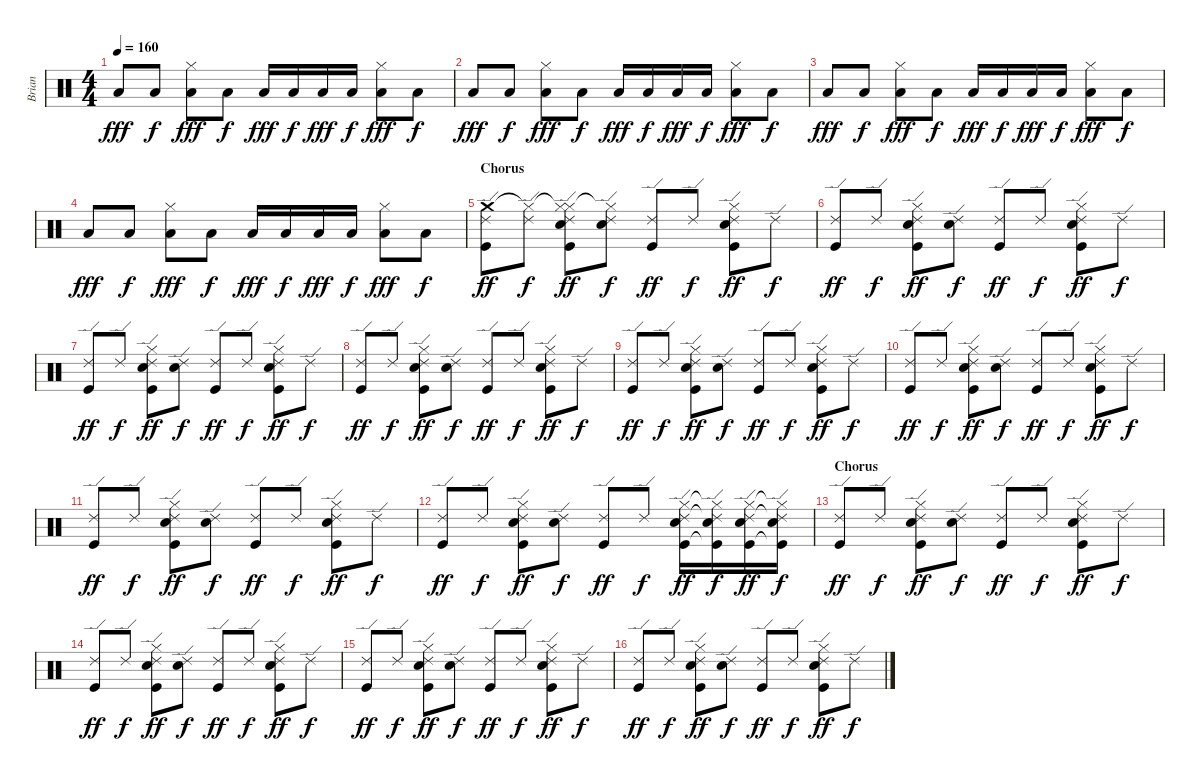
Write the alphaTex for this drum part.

\track ("Brian" "Brian") {instrument percussion}
\staff {score}
\articulation defaults
\ts (4 4)
\tempo 160
\clef neutral
\ks c "Low Tom (hit)".8{dy fff} "Low Tom (hit)".8{dy f}
("Hi-Hat (closed)" "Low Tom (hit)").8{dy fff} "Low Tom (hit)".8{dy f} "Low Tom (hit)".16{dy fff} "Low Tom (hit)".16{dy f} "Low Tom (hit)".16{dy fff} "Low Tom (hit)".16{dy f} ("Hi-Hat (closed)" "Low Tom (hit)").8{dy fff} "Low Tom (hit)".8{dy f} |
"Low Tom (hit)".8{dy fff} "Low Tom (hit)".8{dy f} ("Hi-Hat (closed)" "Low Tom (hit)").8{dy fff} "Low Tom (hit)".8{dy f} "Low Tom (hit)".16{dy fff} "Low Tom (hit)".16{dy f} "Low Tom (hit)".16{dy fff} "Low Tom (hit)".16{dy f} ("Hi-Hat (closed)" "Low Tom (hit)").8{dy fff} "Low Tom (hit)".8{dy f} |
"Low Tom (hit)".8{dy fff} "Low Tom (hit)".8{dy f} ("Hi-Hat (closed)" "Low Tom (hit)").8{dy fff} "Low Tom (hit)".8{dy f} "Low Tom (hit)".16{dy fff} "Low Tom (hit)".16{dy f} "Low Tom (hit)".16{dy fff} "Low Tom (hit)".16{dy f} ("Hi-Hat (closed)" "Low Tom (hit)").8{dy fff} "Low Tom (hit)".8{dy f} |
"Low Tom (hit)".8{dy fff} "Low Tom (hit)".8{dy f} ("Hi-Hat (closed)" "Low Tom (hit)").8{dy fff} "Low Tom (hit)".8{dy f} "Low Tom (hit)".16{dy fff} "Low Tom (hit)".16{dy f} "Low Tom (hit)".16{dy fff} "Low Tom (hit)".16{dy f} ("Hi-Hat (closed)" "Low Tom (hit)").8{dy fff} "Low Tom (hit)".8{dy f} |
\section ("" "Chorus")
("Ride (edge) 2" "Crash medium (hit)" "Kick (hit)").8{dy ff} ("Ride (edge) 2" "Hi-Hat (closed)"{t}).8{dy f} ("Ride (edge) 2" "Hi-Hat (closed)"{t} "Hi-Hat (closed)" "Snare (hit) 2" "Kick (hit)").8{dy ff} ("Ride (edge) 2" "Hi-Hat (closed)"{t} "Snare (hit) 2").8{dy f} ("Ride (edge) 2" "Kick (hit)").8{dy ff} "Ride (edge) 2".8{dy f} ("Ride (edge) 2" "Hi-Hat (closed)" "Snare (hit) 2" "Kick (hit)").8{dy ff} "Ride (edge) 2".8{dy f} |
("Ride (edge) 2" "Kick (hit)").8{dy ff} "Ride (edge) 2".8{dy f} ("Ride (edge) 2" "Hi-Hat (closed)" "Snare (hit) 2" "Kick (hit)").8{dy ff} ("Ride (edge) 2" "Snare (hit) 2").8{dy f} ("Ride (edge) 2" "Kick (hit)").8{dy ff} "Ride (edge) 2".8{dy f} ("Ride (edge) 2" "Hi-Hat (closed)" "Snare (hit) 2" "Kick (hit)").8{dy ff} "Ride (edge) 2".8{dy f} |
("Ride (edge) 2" "Kick (hit)").8{dy ff} "Ride (edge) 2".8{dy f} ("Ride (edge) 2" "Hi-Hat (closed)" "Snare (hit) 2" "Kick (hit)").8{dy ff} ("Ride (edge) 2" "Snare (hit) 2").8{dy f} ("Ride (edge) 2" "Kick (hit)").8{dy ff} "Ride (edge) 2".8{dy f} ("Ride (edge) 2" "Hi-Hat (closed)" "Snare (hit) 2" "Kick (hit)").8{dy ff} "Ride (edge) 2".8{dy f} |
("Ride (edge) 2" "Kick (hit)").8{dy ff} "Ride (edge) 2".8{dy f} ("Ride (edge) 2" "Hi-Hat (closed)" "Snare (hit) 2" "Kick (hit)").8{dy ff} ("Ride (edge) 2" "Snare (hit) 2").8{dy f} ("Ride (edge) 2" "Kick (hit)").8{dy ff} "Ride (edge) 2".8{dy f} ("Ride (edge) 2" "Hi-Hat (closed)" "Snare (hit) 2" "Kick (hit)").8{dy ff} "Ride (edge) 2".8{dy f} |
("Ride (edge) 2" "Kick (hit)").8{dy ff} "Ride (edge) 2".8{dy f} ("Ride (edge) 2" "Hi-Hat (closed)" "Snare (hit) 2" "Kick (hit)").8{dy ff} ("Ride (edge) 2" "Snare (hit) 2").8{dy f} ("Ride (edge) 2" "Kick (hit)").8{dy ff} "Ride (edge) 2".8{dy f} ("Ride (edge) 2" "Hi-Hat (closed)" "Snare (hit) 2" "Kick (hit)").8{dy ff} "Ride (edge) 2".8{dy f} |
("Ride (edge) 2" "Kick (hit)").8{dy ff} "Ride (edge) 2".8{dy f} ("Ride (edge) 2" "Hi-Hat (closed)" "Snare (hit) 2" "Kick (hit)").8{dy ff} ("Ride (edge) 2" "Snare (hit) 2").8{dy f} ("Ride (edge) 2" "Kick (hit)").8{dy ff} "Ride (edge) 2".8{dy f} ("Ride (edge) 2" "Hi-Hat (closed)" "Snare (hit) 2" "Kick (hit)").8{dy ff} "Ride (edge) 2".8{dy f} |
("Ride (edge) 2" "Kick (hit)").8{dy ff} "Ride (edge) 2".8{dy f} ("Ride (edge) 2" "Hi-Hat (closed)" "Snare (hit) 2" "Kick (hit)").8{dy ff} ("Ride (edge) 2" "Snare (hit) 2").8{dy f} ("Ride (edge) 2" "Kick (hit)").8{dy ff} "Ride (edge) 2".8{dy f} ("Ride (edge) 2" "Hi-Hat (closed)" "Snare (hit) 2" "Kick (hit)").8{dy ff} "Ride (edge) 2".8{dy f} |
("Ride (edge) 2" "Kick (hit)").8{dy ff} "Ride (edge) 2".8{dy f} ("Ride (edge) 2" "Hi-Hat (closed)" "Snare (hit) 2" "Kick (hit)").8{dy ff} ("Ride (edge) 2" "Snare (hit) 2").8{dy f} ("Ride (edge) 2" "Kick (hit)").8{dy ff} "Ride (edge) 2".8{dy f} ("Ride (edge) 2" "Hi-Hat (closed)" "Snare (hit) 2" "Kick (hit)").16{dy ff} ("Ride (edge) 2"{t} "Hi-Hat (closed)"{t} "Snare (hit) 2" "Kick (hit)"{t}).16{dy f} ("Ride (edge) 2" "Hi-Hat (closed)" "Snare (hit) 2" "Kick (hit)").16{dy ff} ("Ride (edge) 2"{t} "Hi-Hat (closed)"{t} "Snare (hit) 2" "Kick (hit)"{t}).16{dy f} |
\section ("" "Chorus")
("Ride (edge) 2" "Kick (hit)").8{dy ff} "Ride (edge) 2".8{dy f} ("Ride (edge) 2" "Hi-Hat (closed)" "Snare (hit) 2" "Kick (hit)").8{dy ff} ("Ride (edge) 2" "Snare (hit) 2").8{dy f} ("Ride (edge) 2" "Kick (hit)").8{dy ff} "Ride (edge) 2".8{dy f} ("Ride (edge) 2" "Hi-Hat (closed)" "Snare (hit) 2" "Kick (hit)").8{dy ff} "Ride (edge) 2".8{dy f} |
("Ride (edge) 2" "Kick (hit)").8{dy ff} "Ride (edge) 2".8{dy f} ("Ride (edge) 2" "Hi-Hat (closed)" "Snare (hit) 2" "Kick (hit)").8{dy ff} ("Ride (edge) 2" "Snare (hit) 2").8{dy f} ("Ride (edge) 2" "Kick (hit)").8{dy ff} "Ride (edge) 2".8{dy f} ("Ride (edge) 2" "Hi-Hat (closed)" "Snare (hit) 2" "Kick (hit)").8{dy ff} "Ride (edge) 2".8{dy f} |
("Ride (edge) 2" "Kick (hit)").8{dy ff} "Ride (edge) 2".8{dy f} ("Ride (edge) 2" "Hi-Hat (closed)" "Snare (hit) 2" "Kick (hit)").8{dy ff} ("Ride (edge) 2" "Snare (hit) 2").8{dy f} ("Ride (edge) 2" "Kick (hit)").8{dy ff} "Ride (edge) 2".8{dy f} ("Ride (edge) 2" "Hi-Hat (closed)" "Snare (hit) 2" "Kick (hit)").8{dy ff} "Ride (edge) 2".8{dy f} |
("Ride (edge) 2" "Kick (hit)").8{dy ff} "Ride (edge) 2".8{dy f} ("Ride (edge) 2" "Hi-Hat (closed)" "Snare (hit) 2" "Kick (hit)").8{dy ff} ("Ride (edge) 2" "Snare (hit) 2").8{dy f} ("Ride (edge) 2" "Kick (hit)").8{dy ff} "Ride (edge) 2".8{dy f} ("Ride (edge) 2" "Hi-Hat (closed)" "Snare (hit) 2" "Kick (hit)").8{dy ff} "Ride (edge) 2".8{dy f}
